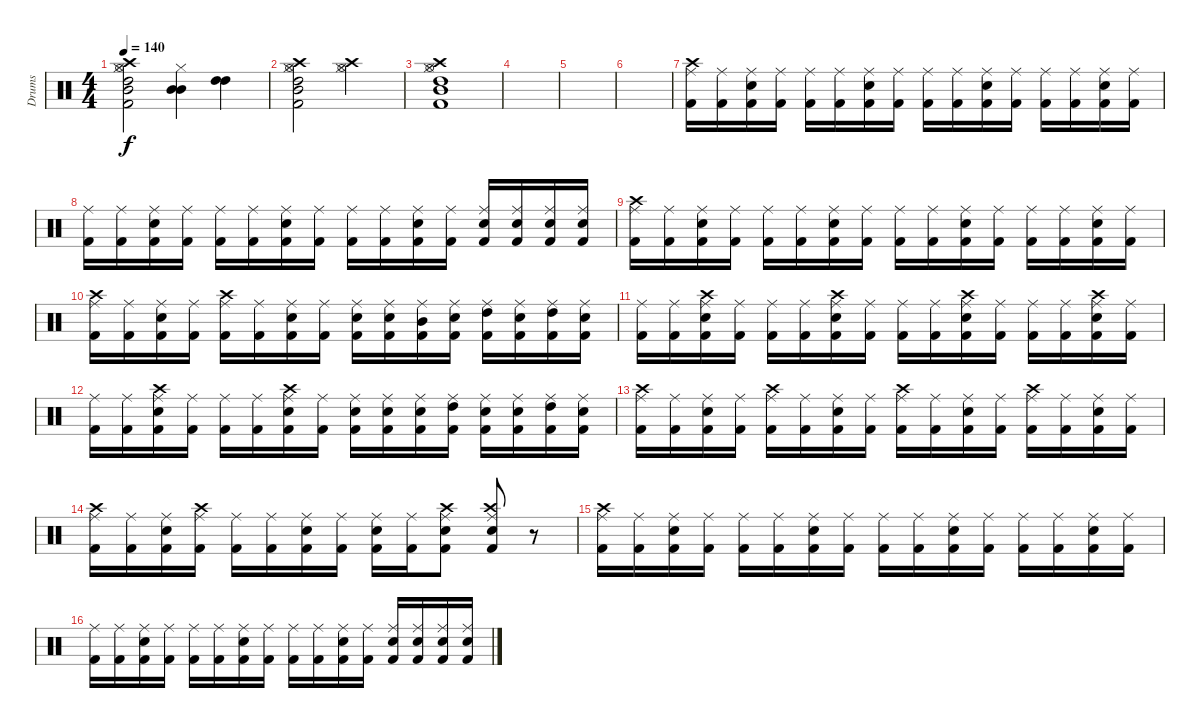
\track ("Drums" "Drums") {instrument percussion}
\staff {score}
\articulation defaults
\ts (4 4)
\tempo 140
\clef neutral
\ks c
("Kick (hit) 2" "Mid Tom (hit)" "High Tom (hit)" "Hi-Hat (open)" "Crash high (hit)" "Hi-Hat (closed)").2{dy f} ("Mid Tom (hit)" "Mid Tom (hit)" "Hi-Hat (closed)").4 ("High Tom (hit)" "High Tom (hit)").4 |
("Kick (hit) 2" "Mid Tom (hit)" "High Tom (hit)" "Hi-Hat (open)" "Crash high (hit)" "Hi-Hat (closed)").2 ("Hi-Hat (open)" "Crash high (hit)" "Hi-Hat (closed)").2 |
("Kick (hit) 2" "Mid Tom (hit)" "High Tom (hit)" "Hi-Hat (open)" "Crash high (hit)" "Hi-Hat (closed)").1 |
|
|
|
("Kick (hit) 2" "Crash high (hit)" "Ride (middle)").16 ("Kick (hit) 2" "Ride (middle)").16 ("Kick (hit) 2" "Snare (hit) 2" "Ride (middle)").16 ("Kick (hit) 2" "Ride (middle)").16 ("Kick (hit) 2" "Ride (middle)").16 ("Kick (hit) 2" "Ride (middle)").16 ("Kick (hit) 2" "Snare (hit) 2" "Ride (middle)").16 ("Kick (hit) 2" "Ride (middle)").16 ("Kick (hit) 2" "Ride (middle)").16 ("Kick (hit) 2" "Ride (middle)").16 ("Kick (hit) 2" "Snare (hit) 2" "Ride (middle)").16 ("Kick (hit) 2" "Ride (middle)").16 ("Kick (hit) 2" "Ride (middle)").16 ("Kick (hit) 2" "Ride (middle)").16 ("Kick (hit) 2" "Snare (hit) 2" "Ride (middle)").16 ("Kick (hit) 2" "Ride (middle)").16 |
("Kick (hit) 2" "Ride (middle)").16 ("Kick (hit) 2" "Ride (middle)").16 ("Kick (hit) 2" "Snare (hit) 2" "Ride (middle)").16 ("Kick (hit) 2" "Ride (middle)").16 ("Kick (hit) 2" "Ride (middle)").16 ("Kick (hit) 2" "Ride (middle)").16 ("Kick (hit) 2" "Snare (hit) 2" "Ride (middle)").16 ("Kick (hit) 2" "Ride (middle)").16 ("Kick (hit) 2" "Ride (middle)").16 ("Kick (hit) 2" "Ride (middle)").16 ("Kick (hit) 2" "Snare (hit) 2" "Ride (middle)").16 ("Kick (hit) 2" "Ride (middle)").16 ("Kick (hit) 2" "Snare (hit) 2" "Ride (middle)").16 ("Kick (hit) 2" "Snare (hit) 2" "Ride (middle)").16 ("Kick (hit) 2" "Snare (hit) 2" "Ride (middle)").16 ("Kick (hit) 2" "Snare (hit) 2" "Ride (middle)").16 |
("Kick (hit) 2" "Crash high (hit)" "Ride (middle)").16 ("Kick (hit) 2" "Ride (middle)").16 ("Kick (hit) 2" "Snare (hit) 2" "Ride (middle)").16 ("Kick (hit) 2" "Ride (middle)").16 ("Kick (hit) 2" "Ride (middle)").16 ("Kick (hit) 2" "Ride (middle)").16 ("Kick (hit) 2" "Snare (hit) 2" "Ride (middle)").16 ("Kick (hit) 2" "Ride (middle)").16 ("Kick (hit) 2" "Ride (middle)").16 ("Kick (hit) 2" "Ride (middle)").16 ("Kick (hit) 2" "Snare (hit) 2" "Ride (middle)").16 ("Kick (hit) 2" "Ride (middle)").16 ("Kick (hit) 2" "Ride (middle)").16 ("Kick (hit) 2" "Ride (middle)").16 ("Kick (hit) 2" "Snare (hit) 2" "Ride (middle)").16 ("Kick (hit) 2" "Ride (middle)").16 |
("Kick (hit) 2" "Crash high (hit)" "Ride (middle)").16 ("Kick (hit) 2" "Ride (middle)").16 ("Kick (hit) 2" "Snare (hit) 2" "Ride (middle)").16 ("Kick (hit) 2" "Ride (middle)").16 ("Kick (hit) 2" "Crash high (hit)" "Ride (middle)").16 ("Kick (hit) 2" "Ride (middle)").16 ("Kick (hit) 2" "Snare (hit) 2" "Ride (middle)").16 ("Kick (hit) 2" "Ride (middle)").16 ("Kick (hit) 2" "Snare (hit) 2" "Ride (middle)").16 ("Kick (hit) 2" "Snare (hit) 2" "Ride (middle)").16 ("Kick (hit) 2" "Mid Tom (hit)" "Ride (middle)").16 ("Kick (hit) 2" "Snare (hit) 2" "Ride (middle)").16 ("Kick (hit) 2" "High Tom (hit)" "Ride (middle)").16 ("Kick (hit) 2" "Snare (hit) 2" "Ride (middle)").16 ("Kick (hit) 2" "High Tom (hit)" "Ride (middle)").16 ("Kick (hit) 2" "Snare (hit) 2" "Ride (middle)").16 |
("Kick (hit) 2" "Ride (middle)").16 ("Kick (hit) 2" "Ride (middle)").16 ("Kick (hit) 2" "Snare (hit) 2" "Crash high (hit)" "Ride (middle)").16 ("Kick (hit) 2" "Ride (middle)").16 ("Kick (hit) 2" "Ride (middle)").16 ("Kick (hit) 2" "Ride (middle)").16 ("Kick (hit) 2" "Snare (hit) 2" "Crash high (hit)" "Ride (middle)").16 ("Kick (hit) 2" "Ride (middle)").16 ("Kick (hit) 2" "Ride (middle)").16 ("Kick (hit) 2" "Ride (middle)").16 ("Kick (hit) 2" "Snare (hit) 2" "Crash high (hit)" "Ride (middle)").16 ("Kick (hit) 2" "Ride (middle)").16 ("Kick (hit) 2" "Ride (middle)").16 ("Kick (hit) 2" "Ride (middle)").16 ("Kick (hit) 2" "Snare (hit) 2" "Crash high (hit)" "Ride (middle)").16 ("Kick (hit) 2" "Ride (middle)").16 |
("Kick (hit) 2" "Ride (middle)").16 ("Kick (hit) 2" "Ride (middle)").16 ("Kick (hit) 2" "Snare (hit) 2" "Crash high (hit)" "Ride (middle)").16 ("Kick (hit) 2" "Ride (middle)").16 ("Kick (hit) 2" "Ride (middle)").16 ("Kick (hit) 2" "Ride (middle)").16 ("Kick (hit) 2" "Snare (hit) 2" "Crash high (hit)" "Ride (middle)").16 ("Kick (hit) 2" "Ride (middle)").16 ("Kick (hit) 2" "Snare (hit) 2" "Ride (middle)").16 ("Kick (hit) 2" "Snare (hit) 2" "Ride (middle)").16 ("Kick (hit) 2" "Snare (hit) 2" "Ride (middle)").16 ("Kick (hit) 2" "High Tom (hit)" "Ride (middle)").16 ("Kick (hit) 2" "Snare (hit) 2" "Ride (middle)").16 ("Kick (hit) 2" "Snare (hit) 2" "Ride (middle)").16 ("Kick (hit) 2" "High Tom (hit)" "Ride (middle)").16 ("Kick (hit) 2" "Snare (hit) 2" "Ride (middle)").16 |
("Kick (hit) 2" "Crash high (hit)" "Ride (middle)").16 ("Kick (hit) 2" "Ride (middle)").16 ("Kick (hit) 2" "Snare (hit) 2" "Ride (middle)").16 ("Kick (hit) 2" "Ride (middle)").16 ("Kick (hit) 2" "Crash high (hit)" "Ride (middle)").16 ("Kick (hit) 2" "Ride (middle)").16 ("Kick (hit) 2" "Snare (hit) 2" "Ride (middle)").16 ("Kick (hit) 2" "Ride (middle)").16 ("Kick (hit) 2" "Crash high (hit)" "Ride (middle)").16 ("Kick (hit) 2" "Ride (middle)").16 ("Kick (hit) 2" "Snare (hit) 2" "Ride (middle)").16 ("Kick (hit) 2" "Ride (middle)").16 ("Kick (hit) 2" "Crash high (hit)" "Ride (middle)").16 ("Kick (hit) 2" "Ride (middle)").16 ("Kick (hit) 2" "Snare (hit) 2" "Ride (middle)").16 ("Kick (hit) 2" "Ride (middle)").16 |
("Kick (hit) 2" "Crash high (hit)" "Ride (middle)").16 ("Kick (hit) 2" "Ride (middle)").16 ("Kick (hit) 2" "Snare (hit) 2" "Ride (middle)").16 ("Kick (hit) 2" "Crash high (hit)" "Ride (middle)").16 ("Kick (hit) 2" "Ride (middle)").16 ("Kick (hit) 2" "Ride (middle)").16 ("Kick (hit) 2" "Snare (hit) 2" "Ride (middle)").16 ("Kick (hit) 2" "Ride (middle)").16 ("Kick (hit) 2" "Snare (hit) 2" "Ride (middle)").16 ("Kick (hit) 2" "Ride (middle)").16 ("Kick (hit) 2" "Snare (hit) 2" "Crash high (hit)" "Ride (middle)").8 ("Kick (hit) 2" "Snare (hit) 2" "Crash high (hit)" "Ride (middle)").8 r.8 |
("Kick (hit) 2" "Crash high (hit)" "Ride (middle)").16 ("Kick (hit) 2" "Ride (middle)").16 ("Kick (hit) 2" "Snare (hit) 2" "Ride (middle)").16 ("Kick (hit) 2" "Ride (middle)").16 ("Kick (hit) 2" "Ride (middle)").16 ("Kick (hit) 2" "Ride (middle)").16 ("Kick (hit) 2" "Snare (hit) 2" "Ride (middle)").16 ("Kick (hit) 2" "Ride (middle)").16 ("Kick (hit) 2" "Ride (middle)").16 ("Kick (hit) 2" "Ride (middle)").16 ("Kick (hit) 2" "Snare (hit) 2" "Ride (middle)").16 ("Kick (hit) 2" "Ride (middle)").16 ("Kick (hit) 2" "Ride (middle)").16 ("Kick (hit) 2" "Ride (middle)").16 ("Kick (hit) 2" "Snare (hit) 2" "Ride (middle)").16 ("Kick (hit) 2" "Ride (middle)").16 |
("Kick (hit) 2" "Ride (middle)").16 ("Kick (hit) 2" "Ride (middle)").16 ("Kick (hit) 2" "Snare (hit) 2" "Ride (middle)").16 ("Kick (hit) 2" "Ride (middle)").16 ("Kick (hit) 2" "Ride (middle)").16 ("Kick (hit) 2" "Ride (middle)").16 ("Kick (hit) 2" "Snare (hit) 2" "Ride (middle)").16 ("Kick (hit) 2" "Ride (middle)").16 ("Kick (hit) 2" "Ride (middle)").16 ("Kick (hit) 2" "Ride (middle)").16 ("Kick (hit) 2" "Snare (hit) 2" "Ride (middle)").16 ("Kick (hit) 2" "Ride (middle)").16 ("Kick (hit) 2" "Snare (hit) 2" "Ride (middle)").16 ("Kick (hit) 2" "Snare (hit) 2" "Ride (middle)").16 ("Kick (hit) 2" "Snare (hit) 2" "Ride (middle)").16 ("Kick (hit) 2" "Snare (hit) 2" "Ride (middle)").16
